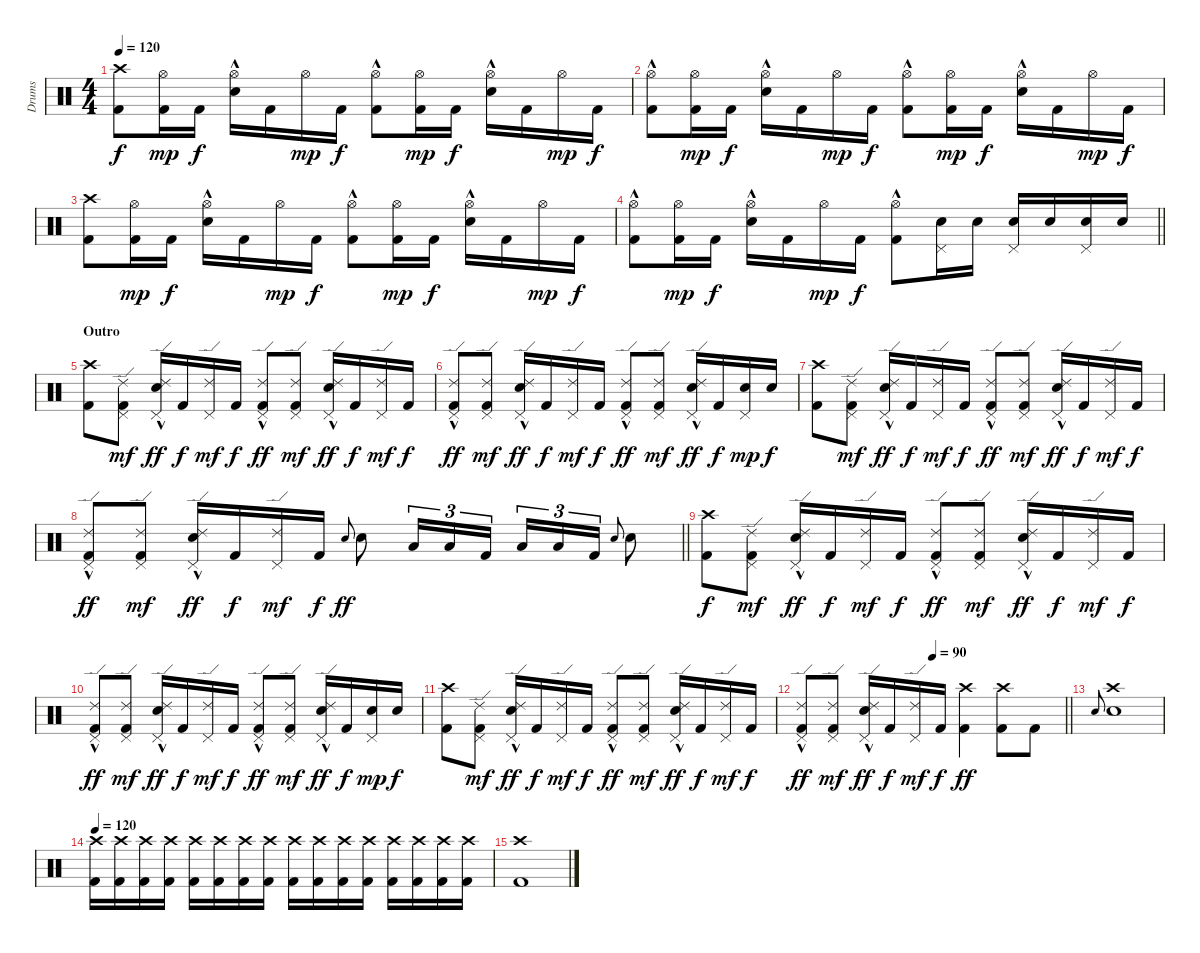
\track ("Drums" "Drums") {instrument percussion}
\staff {score}
\articulation defaults
\ts (4 4)
\tempo 120
\clef neutral
\ks c
("Crash high (hit)" "Kick (hit) 2").8{dy f} ("Hi-Hat (open)" "Kick (hit) 2").16{dy mp} "Kick (hit) 2".16{dy f} ("Hi-Hat (open)"{hac} "Snare (hit) 2").16 "Kick (hit) 2".16 "Hi-Hat (open)".16{dy mp} "Kick (hit) 2".16{dy f} ("Hi-Hat (open)"{hac} "Kick (hit) 2").8 ("Hi-Hat (open)" "Kick (hit) 2").16{dy mp} "Kick (hit) 2".16{dy f} ("Hi-Hat (open)"{hac} "Snare (hit) 2").16 "Kick (hit) 2".16 "Hi-Hat (open)".16{dy mp} "Kick (hit) 2".16{dy f} |
("Hi-Hat (open)"{hac} "Kick (hit) 2").8 ("Hi-Hat (open)" "Kick (hit) 2").16{dy mp} "Kick (hit) 2".16{dy f} ("Hi-Hat (open)"{hac} "Snare (hit) 2").16 "Kick (hit) 2".16 "Hi-Hat (open)".16{dy mp} "Kick (hit) 2".16{dy f} ("Hi-Hat (open)"{hac} "Kick (hit) 2").8 ("Hi-Hat (open)" "Kick (hit) 2").16{dy mp} "Kick (hit) 2".16{dy f} ("Hi-Hat (open)"{hac} "Snare (hit) 2").16 "Kick (hit) 2".16 "Hi-Hat (open)".16{dy mp} "Kick (hit) 2".16{dy f} |
("Crash high (hit)" "Kick (hit) 2").8 ("Hi-Hat (open)" "Kick (hit) 2").16{dy mp} "Kick (hit) 2".16{dy f} ("Hi-Hat (open)"{hac} "Snare (hit) 2").16 "Kick (hit) 2".16 "Hi-Hat (open)".16{dy mp} "Kick (hit) 2".16{dy f} ("Hi-Hat (open)"{hac} "Kick (hit) 2").8 ("Hi-Hat (open)" "Kick (hit) 2").16{dy mp} "Kick (hit) 2".16{dy f} ("Hi-Hat (open)"{hac} "Snare (hit) 2").16 "Kick (hit) 2".16 "Hi-Hat (open)".16{dy mp} "Kick (hit) 2".16{dy f} |
\barLineRight lightlight
("Hi-Hat (open)"{hac} "Kick (hit) 2").8 ("Hi-Hat (open)" "Kick (hit) 2").16{dy mp} "Kick (hit) 2".16{dy f} ("Hi-Hat (open)"{hac} "Snare (hit) 2").16 "Kick (hit) 2".16 "Hi-Hat (open)".16{dy mp} "Kick (hit) 2".16{dy f} ("Hi-Hat (open)"{hac} "Kick (hit) 2").8 ("Pedal Hi-Hat (hit)" "Snare (hit) 2").16 "Snare (hit) 2".16 ("Pedal Hi-Hat (hit)" "Snare (hit) 2").16 "Snare (hit) 2".16 ("Pedal Hi-Hat (hit)" "Snare (hit) 2").16 "Snare (hit) 2".16 |
\section ("" "Outro")
("Crash high (hit)" "Kick (hit) 2").8 ("Pedal Hi-Hat (hit)" "Ride (edge) 2" "Kick (hit) 2").8{dy mf} ("Pedal Hi-Hat (hit)" "Ride (edge) 2"{hac} "Snare (hit) 2").16{dy ff} "Kick (hit) 2".16{dy f} ("Pedal Hi-Hat (hit)" "Ride (edge) 2").16{dy mf} "Kick (hit) 2".16{dy f} ("Pedal Hi-Hat (hit)" "Ride (edge) 2"{hac} "Kick (hit) 2").8{dy ff} ("Pedal Hi-Hat (hit)" "Ride (edge) 2" "Kick (hit) 2").8{dy mf} ("Pedal Hi-Hat (hit)" "Ride (edge) 2"{hac} "Snare (hit) 2").16{dy ff} "Kick (hit) 2".16{dy f} ("Pedal Hi-Hat (hit)" "Ride (edge) 2").16{dy mf} "Kick (hit) 2".16{dy f} |
("Pedal Hi-Hat (hit)" "Ride (edge) 2"{hac} "Kick (hit) 2").8{dy ff} ("Pedal Hi-Hat (hit)" "Ride (edge) 2" "Kick (hit) 2").8{dy mf} ("Pedal Hi-Hat (hit)" "Ride (edge) 2"{hac} "Snare (hit) 2").16{dy ff} "Kick (hit) 2".16{dy f} ("Pedal Hi-Hat (hit)" "Ride (edge) 2").16{dy mf} "Kick (hit) 2".16{dy f} ("Pedal Hi-Hat (hit)" "Ride (edge) 2"{hac} "Kick (hit) 2").8{dy ff} ("Pedal Hi-Hat (hit)" "Ride (edge) 2" "Kick (hit) 2").8{dy mf} ("Pedal Hi-Hat (hit)" "Ride (edge) 2"{hac} "Snare (hit) 2").16{dy ff} "Kick (hit) 2".16{dy f} ("Pedal Hi-Hat (hit)" "Snare (hit) 2").16{dy mp} "Snare (hit) 2".16{dy f} |
("Crash high (hit)" "Kick (hit) 2").8 ("Pedal Hi-Hat (hit)" "Ride (edge) 2" "Kick (hit) 2").8{dy mf} ("Pedal Hi-Hat (hit)" "Ride (edge) 2"{hac} "Snare (hit) 2").16{dy ff} "Kick (hit) 2".16{dy f} ("Pedal Hi-Hat (hit)" "Ride (edge) 2").16{dy mf} "Kick (hit) 2".16{dy f} ("Pedal Hi-Hat (hit)" "Ride (edge) 2"{hac} "Kick (hit) 2").8{dy ff} ("Pedal Hi-Hat (hit)" "Ride (edge) 2" "Kick (hit) 2").8{dy mf} ("Pedal Hi-Hat (hit)" "Ride (edge) 2"{hac} "Snare (hit) 2").16{dy ff} "Kick (hit) 2".16{dy f} ("Pedal Hi-Hat (hit)" "Ride (edge) 2").16{dy mf} "Kick (hit) 2".16{dy f} |
\barLineRight lightlight
("Pedal Hi-Hat (hit)" "Ride (edge) 2"{hac} "Kick (hit) 2").8{dy ff} ("Pedal Hi-Hat (hit)" "Ride (edge) 2" "Kick (hit) 2").8{dy mf} ("Pedal Hi-Hat (hit)" "Ride (edge) 2"{hac} "Snare (hit) 2").16{dy ff} "Kick (hit) 2".16{dy f} ("Pedal Hi-Hat (hit)" "Ride (edge) 2").16{dy mf} "Kick (hit) 2".16{dy f} "Snare (hit) 2".8{gr onbeat dy ff} "Snare (hit) 2".8 "Low Tom (hit)".16{tu (3 2)} "Low Floor Tom (hit)".16{tu (3 2)} "Kick (hit) 2".16{tu (3 2)} "Low Tom (hit)".16{tu (3 2)} "Low Floor Tom (hit)".16{tu (3 2)} "Kick (hit) 2".16{tu (3 2)} "Snare (hit) 2".8{gr onbeat} "Snare (hit) 2".8 |
("Crash high (hit)" "Kick (hit) 2").8{dy f} ("Pedal Hi-Hat (hit)" "Ride (edge) 2" "Kick (hit) 2").8{dy mf} ("Pedal Hi-Hat (hit)" "Ride (edge) 2"{hac} "Snare (hit) 2").16{dy ff} "Kick (hit) 2".16{dy f} ("Pedal Hi-Hat (hit)" "Ride (edge) 2").16{dy mf} "Kick (hit) 2".16{dy f} ("Pedal Hi-Hat (hit)" "Ride (edge) 2"{hac} "Kick (hit) 2").8{dy ff} ("Pedal Hi-Hat (hit)" "Ride (edge) 2" "Kick (hit) 2").8{dy mf} ("Pedal Hi-Hat (hit)" "Ride (edge) 2"{hac} "Snare (hit) 2").16{dy ff} "Kick (hit) 2".16{dy f} ("Pedal Hi-Hat (hit)" "Ride (edge) 2").16{dy mf} "Kick (hit) 2".16{dy f} |
("Pedal Hi-Hat (hit)" "Ride (edge) 2"{hac} "Kick (hit) 2").8{dy ff} ("Pedal Hi-Hat (hit)" "Ride (edge) 2" "Kick (hit) 2").8{dy mf} ("Pedal Hi-Hat (hit)" "Ride (edge) 2"{hac} "Snare (hit) 2").16{dy ff} "Kick (hit) 2".16{dy f} ("Pedal Hi-Hat (hit)" "Ride (edge) 2").16{dy mf} "Kick (hit) 2".16{dy f} ("Pedal Hi-Hat (hit)" "Ride (edge) 2"{hac} "Kick (hit) 2").8{dy ff} ("Pedal Hi-Hat (hit)" "Ride (edge) 2" "Kick (hit) 2").8{dy mf} ("Pedal Hi-Hat (hit)" "Ride (edge) 2"{hac} "Snare (hit) 2").16{dy ff} "Kick (hit) 2".16{dy f} ("Pedal Hi-Hat (hit)" "Snare (hit) 2").16{dy mp} "Snare (hit) 2".16{dy f} |
("Crash high (hit)" "Kick (hit) 2").8 ("Pedal Hi-Hat (hit)" "Ride (edge) 2" "Kick (hit) 2").8{dy mf} ("Pedal Hi-Hat (hit)" "Ride (edge) 2"{hac} "Snare (hit) 2").16{dy ff} "Kick (hit) 2".16{dy f} ("Pedal Hi-Hat (hit)" "Ride (edge) 2").16{dy mf} "Kick (hit) 2".16{dy f} ("Pedal Hi-Hat (hit)" "Ride (edge) 2"{hac} "Kick (hit) 2").8{dy ff} ("Pedal Hi-Hat (hit)" "Ride (edge) 2" "Kick (hit) 2").8{dy mf} ("Pedal Hi-Hat (hit)" "Ride (edge) 2"{hac} "Snare (hit) 2").16{dy ff} "Kick (hit) 2".16{dy f} ("Pedal Hi-Hat (hit)" "Ride (edge) 2").16{dy mf} "Kick (hit) 2".16{dy f} |
\tempo (90 0.5)
\barLineRight lightlight
("Pedal Hi-Hat (hit)" "Ride (edge) 2"{hac} "Kick (hit) 2").8{dy ff} ("Pedal Hi-Hat (hit)" "Ride (edge) 2" "Kick (hit) 2").8{dy mf} ("Pedal Hi-Hat (hit)" "Ride (edge) 2"{hac} "Snare (hit) 2").16{dy ff} "Kick (hit) 2".16{dy f} ("Pedal Hi-Hat (hit)" "Ride (edge) 2").16{dy mf} "Kick (hit) 2".16{dy f} ("Crash high (hit)" "Kick (hit) 2").4{dy ff} ("Crash high (hit)" "Kick (hit) 2").8 "Kick (hit) 2".8 |
"Snare (hit) 2".8{gr onbeat} ("Crash high (hit)" "Snare (hit) 2").1 |
\tempo 120
("Crash high (hit)" "Kick (hit) 2").16 ("Crash high (hit)" "Kick (hit) 2").16 ("Crash high (hit)" "Kick (hit) 2").16 ("Crash high (hit)" "Kick (hit) 2").16 ("Crash high (hit)" "Kick (hit) 2").16 ("Crash high (hit)" "Kick (hit) 2").16 ("Crash high (hit)" "Kick (hit) 2").16 ("Crash high (hit)" "Kick (hit) 2").16 ("Crash high (hit)" "Kick (hit) 2").16 ("Crash high (hit)" "Kick (hit) 2").16 ("Crash high (hit)" "Kick (hit) 2").16 ("Crash high (hit)" "Kick (hit) 2").16 ("Crash high (hit)" "Kick (hit) 2").16 ("Crash high (hit)" "Kick (hit) 2").16 ("Crash high (hit)" "Kick (hit) 2").16 ("Crash high (hit)" "Kick (hit) 2").16 |
("Crash high (hit)" "Kick (hit) 2").1
